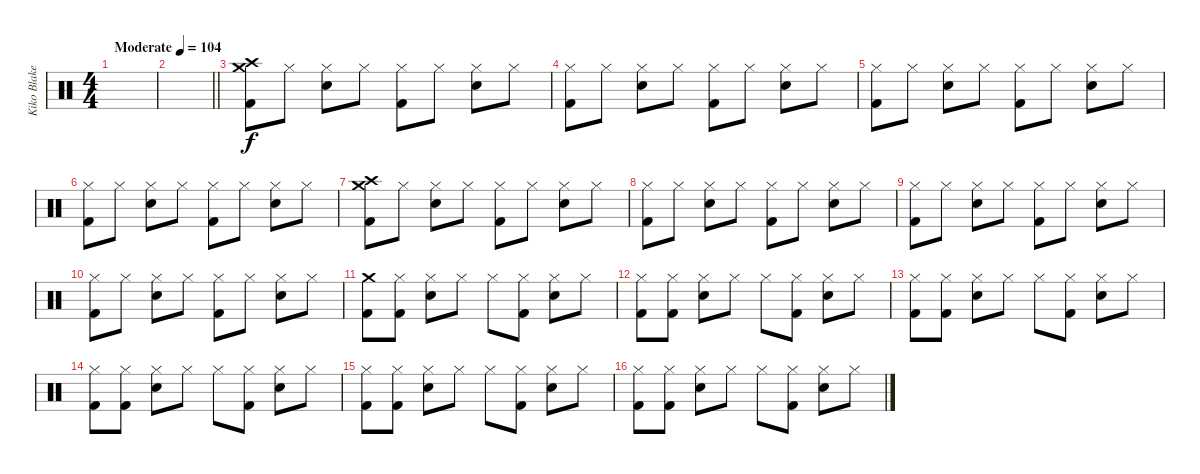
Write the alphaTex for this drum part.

\track ("Kiko Blake" "Kiko Blake") {instrument percussion}
\staff
\articulation defaults
\ts (4 4)
\tempo (104 "Moderate")
\clef neutral
\ks c
|
\barLineRight lightlight
|
("Crash medium (hit)" "Crash high (hit)" "Kick (hit) 2").8 "Hi-Hat (closed)".8 ("Hi-Hat (closed)" "Snare (hit) 2").8 "Hi-Hat (closed)".8 ("Hi-Hat (closed)" "Kick (hit) 2").8 "Hi-Hat (closed)".8 ("Hi-Hat (closed)" "Snare (hit) 2").8 "Hi-Hat (closed)".8 |
("Hi-Hat (closed)" "Kick (hit) 2").8 "Hi-Hat (closed)".8 ("Hi-Hat (closed)" "Snare (hit) 2").8 "Hi-Hat (closed)".8 ("Hi-Hat (closed)" "Kick (hit) 2").8 "Hi-Hat (closed)".8 ("Hi-Hat (closed)" "Snare (hit) 2").8 "Hi-Hat (closed)".8 |
("Hi-Hat (closed)" "Kick (hit) 2").8 "Hi-Hat (closed)".8 ("Hi-Hat (closed)" "Snare (hit) 2").8 "Hi-Hat (closed)".8 ("Hi-Hat (closed)" "Kick (hit) 2").8 "Hi-Hat (closed)".8 ("Hi-Hat (closed)" "Snare (hit) 2").8 "Hi-Hat (closed)".8 |
("Hi-Hat (closed)" "Kick (hit) 2").8 "Hi-Hat (closed)".8 ("Hi-Hat (closed)" "Snare (hit) 2").8 "Hi-Hat (closed)".8 ("Hi-Hat (closed)" "Kick (hit) 2").8 "Hi-Hat (closed)".8 ("Hi-Hat (closed)" "Snare (hit) 2").8 "Hi-Hat (closed)".8 |
("Crash medium (hit)" "Crash high (hit)" "Kick (hit) 2").8 "Hi-Hat (closed)".8 ("Hi-Hat (closed)" "Snare (hit) 2").8 "Hi-Hat (closed)".8 ("Hi-Hat (closed)" "Kick (hit) 2").8 "Hi-Hat (closed)".8 ("Hi-Hat (closed)" "Snare (hit) 2").8 "Hi-Hat (closed)".8 |
("Hi-Hat (closed)" "Kick (hit) 2").8 "Hi-Hat (closed)".8 ("Hi-Hat (closed)" "Snare (hit) 2").8 "Hi-Hat (closed)".8 ("Hi-Hat (closed)" "Kick (hit) 2").8 "Hi-Hat (closed)".8 ("Hi-Hat (closed)" "Snare (hit) 2").8 "Hi-Hat (closed)".8 |
("Hi-Hat (closed)" "Kick (hit) 2").8 "Hi-Hat (closed)".8 ("Hi-Hat (closed)" "Snare (hit) 2").8 "Hi-Hat (closed)".8 ("Hi-Hat (closed)" "Kick (hit) 2").8 "Hi-Hat (closed)".8 ("Hi-Hat (closed)" "Snare (hit) 2").8 "Hi-Hat (closed)".8 |
("Hi-Hat (closed)" "Kick (hit) 2").8 "Hi-Hat (closed)".8 ("Hi-Hat (closed)" "Snare (hit) 2").8 "Hi-Hat (closed)".8 ("Hi-Hat (closed)" "Kick (hit) 2").8 "Hi-Hat (closed)".8 ("Hi-Hat (closed)" "Snare (hit) 2").8 "Hi-Hat (closed)".8 |
("Crash medium (hit)" "Kick (hit) 2").8 ("Hi-Hat (closed)" "Kick (hit) 2").8 ("Hi-Hat (closed)" "Snare (hit) 2").8 "Hi-Hat (closed)".8 "Hi-Hat (closed)".8 ("Hi-Hat (closed)" "Kick (hit) 2").8 ("Hi-Hat (closed)" "Snare (hit) 2").8 "Hi-Hat (closed)".8 |
("Hi-Hat (closed)" "Kick (hit) 2").8 ("Hi-Hat (closed)" "Kick (hit) 2").8 ("Hi-Hat (closed)" "Snare (hit) 2").8 "Hi-Hat (closed)".8 "Hi-Hat (closed)".8 ("Hi-Hat (closed)" "Kick (hit) 2").8 ("Hi-Hat (closed)" "Snare (hit) 2").8 "Hi-Hat (closed)".8 |
("Hi-Hat (closed)" "Kick (hit) 2").8 ("Hi-Hat (closed)" "Kick (hit) 2").8 ("Hi-Hat (closed)" "Snare (hit) 2").8 "Hi-Hat (closed)".8 "Hi-Hat (closed)".8 ("Hi-Hat (closed)" "Kick (hit) 2").8 ("Hi-Hat (closed)" "Snare (hit) 2").8 "Hi-Hat (closed)".8 |
("Hi-Hat (closed)" "Kick (hit) 2").8 ("Hi-Hat (closed)" "Kick (hit) 2").8 ("Hi-Hat (closed)" "Snare (hit) 2").8 "Hi-Hat (closed)".8 "Hi-Hat (closed)".8 ("Hi-Hat (closed)" "Kick (hit) 2").8 ("Hi-Hat (closed)" "Snare (hit) 2").8 "Hi-Hat (closed)".8 |
("Hi-Hat (closed)" "Kick (hit) 2").8 ("Hi-Hat (closed)" "Kick (hit) 2").8 ("Hi-Hat (closed)" "Snare (hit) 2").8 "Hi-Hat (closed)".8 "Hi-Hat (closed)".8 ("Hi-Hat (closed)" "Kick (hit) 2").8 ("Hi-Hat (closed)" "Snare (hit) 2").8 "Hi-Hat (closed)".8 |
("Hi-Hat (closed)" "Kick (hit) 2").8 ("Hi-Hat (closed)" "Kick (hit) 2").8 ("Hi-Hat (closed)" "Snare (hit) 2").8 "Hi-Hat (closed)".8 "Hi-Hat (closed)".8 ("Hi-Hat (closed)" "Kick (hit) 2").8 ("Hi-Hat (closed)" "Snare (hit) 2").8 "Hi-Hat (closed)".8
